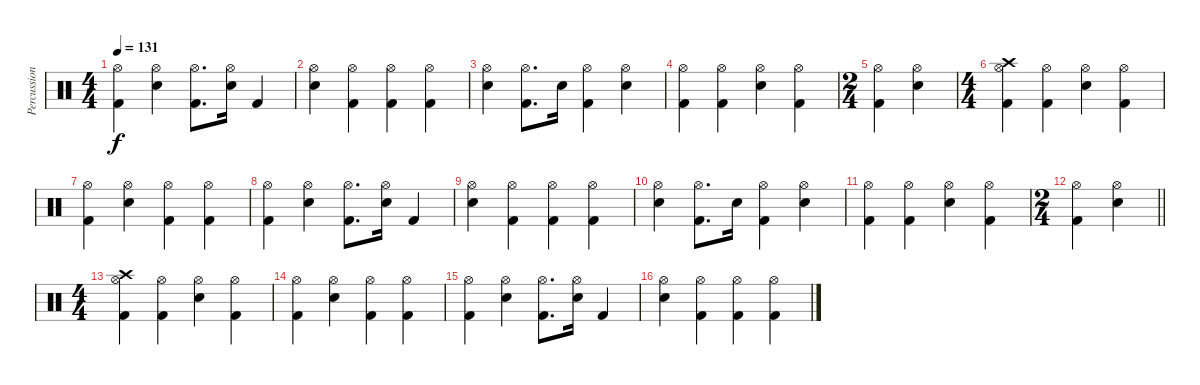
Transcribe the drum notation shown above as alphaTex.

\track ("Percussion" "Percussion") {instrument percussion}
\staff {score}
\articulation defaults
\ts (4 4)
\tempo 131
\clef neutral
\ks c
("Hi-Hat (open)" "Kick (hit) 2").4{dy f} ("Hi-Hat (open)" "Electric Snare (hit)").4 ("Hi-Hat (open)" "Kick (hit) 2").8{d} ("Hi-Hat (open)" "Electric Snare (hit)").16 "Kick (hit) 2".4 |
("Hi-Hat (open)" "Electric Snare (hit)").4 ("Hi-Hat (open)" "Kick (hit) 2").4 ("Hi-Hat (open)" "Kick (hit) 2").4 ("Hi-Hat (open)" "Kick (hit) 2").4 |
("Hi-Hat (open)" "Electric Snare (hit)").4 ("Hi-Hat (open)" "Kick (hit) 2").8{d} "Electric Snare (hit)".16 ("Hi-Hat (open)" "Kick (hit) 2").4 ("Hi-Hat (open)" "Electric Snare (hit)").4 |
("Hi-Hat (open)" "Kick (hit) 2").4 ("Hi-Hat (open)" "Kick (hit) 2").4 ("Hi-Hat (open)" "Electric Snare (hit)").4 ("Hi-Hat (open)" "Kick (hit) 2").4 |
\ts (2 4)
("Hi-Hat (open)" "Kick (hit) 2").4 ("Hi-Hat (open)" "Electric Snare (hit)").4 |
\ts (4 4)
("Hi-Hat (open)" "Crash high (hit)" "Kick (hit) 2").4 ("Hi-Hat (open)" "Kick (hit) 2").4 ("Hi-Hat (open)" "Electric Snare (hit)").4 ("Hi-Hat (open)" "Kick (hit) 2").4 |
("Hi-Hat (open)" "Kick (hit) 2").4 ("Hi-Hat (open)" "Electric Snare (hit)").4 ("Hi-Hat (open)" "Kick (hit) 2").4 ("Hi-Hat (open)" "Kick (hit) 2").4 |
("Hi-Hat (open)" "Kick (hit) 2").4 ("Hi-Hat (open)" "Electric Snare (hit)").4 ("Hi-Hat (open)" "Kick (hit) 2").8{d} ("Hi-Hat (open)" "Electric Snare (hit)").16 "Kick (hit) 2".4 |
("Hi-Hat (open)" "Electric Snare (hit)").4 ("Hi-Hat (open)" "Kick (hit) 2").4 ("Hi-Hat (open)" "Kick (hit) 2").4 ("Hi-Hat (open)" "Kick (hit) 2").4 |
("Hi-Hat (open)" "Electric Snare (hit)").4 ("Hi-Hat (open)" "Kick (hit) 2").8{d} "Electric Snare (hit)".16 ("Hi-Hat (open)" "Kick (hit) 2").4 ("Hi-Hat (open)" "Electric Snare (hit)").4 |
("Hi-Hat (open)" "Kick (hit) 2").4 ("Hi-Hat (open)" "Kick (hit) 2").4 ("Hi-Hat (open)" "Electric Snare (hit)").4 ("Hi-Hat (open)" "Kick (hit) 2").4 |
\ts (2 4)
\barLineRight lightlight
("Hi-Hat (open)" "Kick (hit) 2").4 ("Hi-Hat (open)" "Electric Snare (hit)").4 |
\ts (4 4)
("Hi-Hat (open)" "Crash high (hit)" "Kick (hit) 2").4 ("Hi-Hat (open)" "Kick (hit) 2").4 ("Hi-Hat (open)" "Electric Snare (hit)").4 ("Hi-Hat (open)" "Kick (hit) 2").4 |
("Hi-Hat (open)" "Kick (hit) 2").4 ("Hi-Hat (open)" "Electric Snare (hit)").4 ("Hi-Hat (open)" "Kick (hit) 2").4 ("Hi-Hat (open)" "Kick (hit) 2").4 |
("Hi-Hat (open)" "Kick (hit) 2").4 ("Hi-Hat (open)" "Electric Snare (hit)").4 ("Hi-Hat (open)" "Kick (hit) 2").8{d} ("Hi-Hat (open)" "Electric Snare (hit)").16 "Kick (hit) 2".4 |
("Hi-Hat (open)" "Electric Snare (hit)").4 ("Hi-Hat (open)" "Kick (hit) 2").4 ("Hi-Hat (open)" "Kick (hit) 2").4 ("Hi-Hat (open)" "Kick (hit) 2").4
